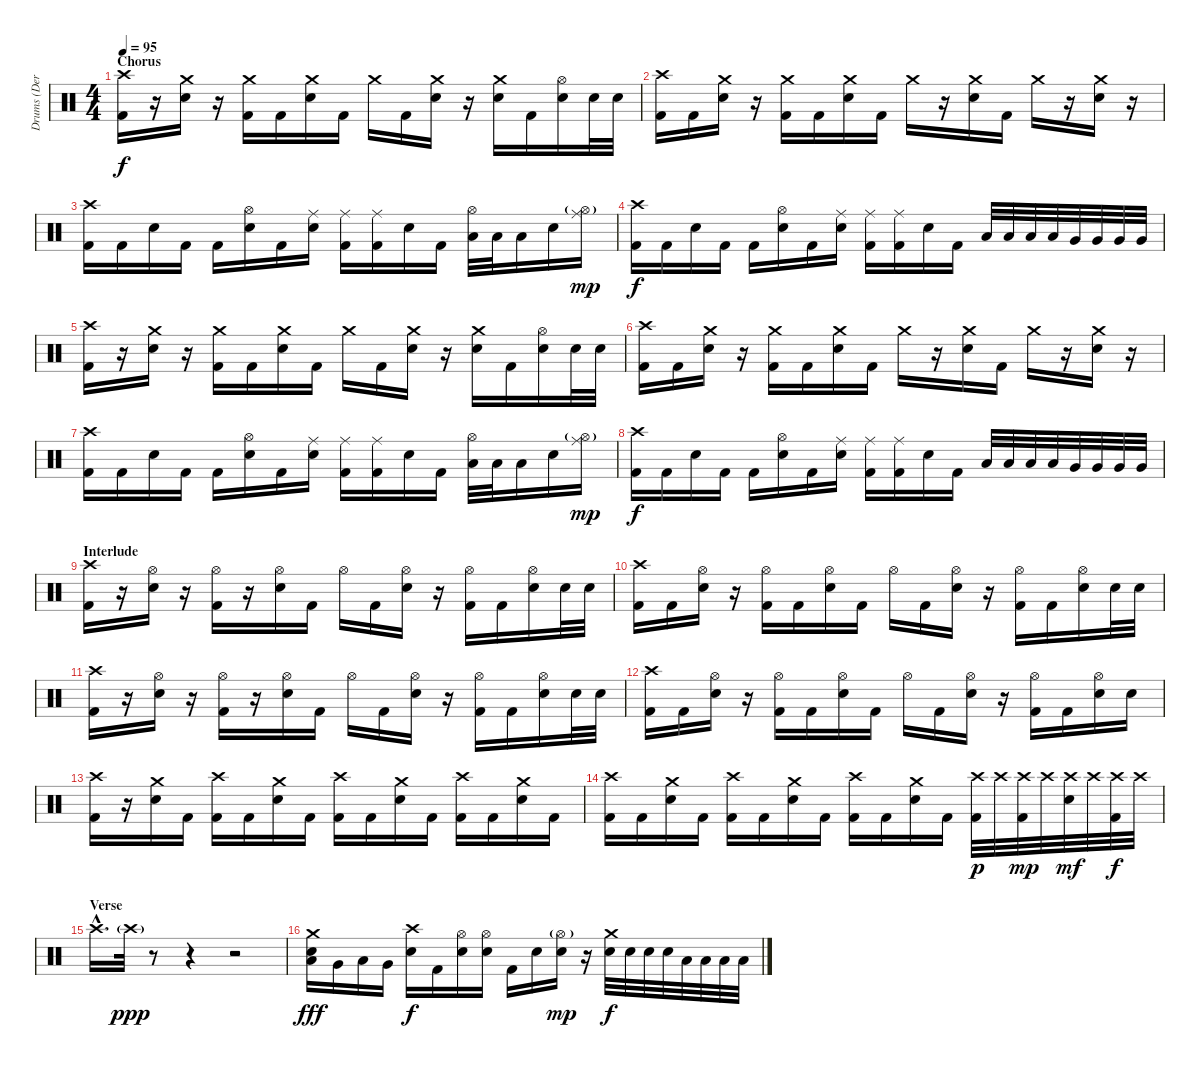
\track ("Drums (Derek Bloom)" "Drums (Der") {instrument percussion}
\staff {score}
\articulation defaults
\ts (4 4)
\section ("" "Chorus")
\tempo 95
\clef neutral
\ks c
("Crash high (hit)" "Kick (hit) 2").16{dy f} r.16 ("Crash medium (hit)" "Electric Snare (hit)").16 r.16 ("Crash medium (hit)" "Kick (hit) 2").16 "Kick (hit) 2".16 ("Crash medium (hit)" "Electric Snare (hit)").16 "Kick (hit) 2".16 "Crash medium (hit)".16 "Kick (hit) 2".16 ("Crash medium (hit)" "Electric Snare (hit)").16 r.16 ("Crash medium (hit)" "Electric Snare (hit)").16 "Kick (hit) 2".16 ("Hi-Hat (open)" "Electric Snare (hit)").16 "Electric Snare (hit)".32 "Electric Snare (hit)".32 |
("Crash high (hit)" "Kick (hit) 2").16 "Kick (hit) 2".16 ("Crash medium (hit)" "Electric Snare (hit)").16 r.16 ("Crash medium (hit)" "Kick (hit) 2").16 "Kick (hit) 2".16 ("Crash medium (hit)" "Electric Snare (hit)").16 "Kick (hit) 2".16 "Crash medium (hit)".16 r.16 ("Crash medium (hit)" "Electric Snare (hit)").16 "Kick (hit) 2".16 "Crash medium (hit)".16 r.16 ("Crash medium (hit)" "Electric Snare (hit)").16 r.16 |
("Crash high (hit)" "Kick (hit) 2").16 "Kick (hit) 2".16 "Electric Snare (hit)".16 "Kick (hit) 2".16 "Kick (hit) 2".16 ("Hi-Hat (open)" "Electric Snare (hit)").16 "Kick (hit) 2".16 ("Ride (middle)" "Electric Snare (hit)").16 ("Ride (middle)" "Kick (hit) 2").16 ("Ride (middle)" "Kick (hit) 2").16 "Electric Snare (hit)".16 "Kick (hit) 2".16 ("Hi-Hat (open)" "Low Tom (hit)").32 "Low Tom (hit)".32 "Low Tom (hit)".16 "Electric Snare (hit)".16 ("Ride (middle)" "Hi-Hat (open)"{g}).16{dy mp} |
("Crash high (hit)" "Kick (hit) 2").16{dy f} "Kick (hit) 2".16 "Electric Snare (hit)".16 "Kick (hit) 2".16 "Kick (hit) 2".16 ("Hi-Hat (open)" "Electric Snare (hit)").16 "Kick (hit) 2".16 ("Ride (middle)" "Electric Snare (hit)").16 ("Ride (middle)" "Kick (hit) 2").16 ("Ride (middle)" "Kick (hit) 2").16 "Electric Snare (hit)".16 "Kick (hit) 2".16 "Low Tom (hit)".32 "Low Tom (hit)".32 "Low Tom (hit)".32 "Low Tom (hit)".32 "Very Low Tom (hit)".32 "Very Low Tom (hit)".32 "Very Low Tom (hit)".32 "Very Low Tom (hit)".32 |
("Crash high (hit)" "Kick (hit) 2").16 r.16 ("Crash medium (hit)" "Electric Snare (hit)").16 r.16 ("Crash medium (hit)" "Kick (hit) 2").16 "Kick (hit) 2".16 ("Crash medium (hit)" "Electric Snare (hit)").16 "Kick (hit) 2".16 "Crash medium (hit)".16 "Kick (hit) 2".16 ("Crash medium (hit)" "Electric Snare (hit)").16 r.16 ("Crash medium (hit)" "Electric Snare (hit)").16 "Kick (hit) 2".16 ("Hi-Hat (open)" "Electric Snare (hit)").16 "Electric Snare (hit)".32 "Electric Snare (hit)".32 |
("Crash high (hit)" "Kick (hit) 2").16 "Kick (hit) 2".16 ("Crash medium (hit)" "Electric Snare (hit)").16 r.16 ("Crash medium (hit)" "Kick (hit) 2").16 "Kick (hit) 2".16 ("Crash medium (hit)" "Electric Snare (hit)").16 "Kick (hit) 2".16 "Crash medium (hit)".16 r.16 ("Crash medium (hit)" "Electric Snare (hit)").16 "Kick (hit) 2".16 "Crash medium (hit)".16 r.16 ("Crash medium (hit)" "Electric Snare (hit)").16 r.16 |
("Crash high (hit)" "Kick (hit) 2").16 "Kick (hit) 2".16 "Electric Snare (hit)".16 "Kick (hit) 2".16 "Kick (hit) 2".16 ("Hi-Hat (open)" "Electric Snare (hit)").16 "Kick (hit) 2".16 ("Ride (middle)" "Electric Snare (hit)").16 ("Ride (middle)" "Kick (hit) 2").16 ("Ride (middle)" "Kick (hit) 2").16 "Electric Snare (hit)".16 "Kick (hit) 2".16 ("Hi-Hat (open)" "Low Tom (hit)").32 "Low Tom (hit)".32 "Low Tom (hit)".16 "Electric Snare (hit)".16 ("Ride (middle)" "Hi-Hat (open)"{g}).16{dy mp} |
("Crash high (hit)" "Kick (hit) 2").16{dy f} "Kick (hit) 2".16 "Electric Snare (hit)".16 "Kick (hit) 2".16 "Kick (hit) 2".16 ("Hi-Hat (open)" "Electric Snare (hit)").16 "Kick (hit) 2".16 ("Ride (middle)" "Electric Snare (hit)").16 ("Ride (middle)" "Kick (hit) 2").16 ("Ride (middle)" "Kick (hit) 2").16 "Electric Snare (hit)".16 "Kick (hit) 2".16 "Low Tom (hit)".32 "Low Tom (hit)".32 "Low Tom (hit)".32 "Low Tom (hit)".32 "Very Low Tom (hit)".32 "Very Low Tom (hit)".32 "Very Low Tom (hit)".32 "Very Low Tom (hit)".32 |
\section ("" "Interlude")
("Crash high (hit)" "Kick (hit) 2").16 r.16 ("Hi-Hat (open)" "Electric Snare (hit)").16 r.16 ("Hi-Hat (open)" "Kick (hit) 2").16 r.16 ("Hi-Hat (open)" "Electric Snare (hit)").16 "Kick (hit) 2".16 "Hi-Hat (open)".16 "Kick (hit) 2".16 ("Hi-Hat (open)" "Electric Snare (hit)").16 r.16 ("Hi-Hat (open)" "Kick (hit) 2").16 "Kick (hit) 2".16 ("Hi-Hat (open)" "Electric Snare (hit)").16 "Electric Snare (hit)".32 "Electric Snare (hit)".32 |
("Crash high (hit)" "Kick (hit) 2").16 "Kick (hit) 2".16 ("Hi-Hat (open)" "Electric Snare (hit)").16 r.16 ("Hi-Hat (open)" "Kick (hit) 2").16 "Kick (hit) 2".16 ("Hi-Hat (open)" "Electric Snare (hit)").16 "Kick (hit) 2".16 "Hi-Hat (open)".16 "Kick (hit) 2".16 ("Hi-Hat (open)" "Electric Snare (hit)").16 r.16 ("Hi-Hat (open)" "Kick (hit) 2").16 "Kick (hit) 2".16 ("Hi-Hat (open)" "Electric Snare (hit)").16 "Electric Snare (hit)".32 "Electric Snare (hit)".32 |
("Crash high (hit)" "Kick (hit) 2").16 r.16 ("Hi-Hat (open)" "Electric Snare (hit)").16 r.16 ("Hi-Hat (open)" "Kick (hit) 2").16 r.16 ("Hi-Hat (open)" "Electric Snare (hit)").16 "Kick (hit) 2".16 "Hi-Hat (open)".16 "Kick (hit) 2".16 ("Hi-Hat (open)" "Electric Snare (hit)").16 r.16 ("Hi-Hat (open)" "Kick (hit) 2").16 "Kick (hit) 2".16 ("Hi-Hat (open)" "Electric Snare (hit)").16 "Electric Snare (hit)".32 "Electric Snare (hit)".32 |
("Crash high (hit)" "Kick (hit) 2").16 "Kick (hit) 2".16 ("Hi-Hat (open)" "Electric Snare (hit)").16 r.16 ("Hi-Hat (open)" "Kick (hit) 2").16 "Kick (hit) 2".16 ("Hi-Hat (open)" "Electric Snare (hit)").16 "Kick (hit) 2".16 "Hi-Hat (open)".16 "Kick (hit) 2".16 ("Hi-Hat (open)" "Electric Snare (hit)").16 r.16 ("Hi-Hat (open)" "Kick (hit) 2").16 "Kick (hit) 2".16 ("Hi-Hat (open)" "Electric Snare (hit)").16 "Electric Snare (hit)".16 |
("Crash high (hit)" "Kick (hit) 2").16 r.16 ("Crash medium (hit)" "Electric Snare (hit)").16 "Kick (hit) 2".16 ("Crash high (hit)" "Kick (hit) 2").16 "Kick (hit) 2".16 ("Crash medium (hit)" "Electric Snare (hit)").16 "Kick (hit) 2".16 ("Crash high (hit)" "Kick (hit) 2").16 "Kick (hit) 2".16 ("Crash medium (hit)" "Electric Snare (hit)").16 "Kick (hit) 2".16 ("Crash high (hit)" "Kick (hit) 2").16 "Kick (hit) 2".16 ("Crash medium (hit)" "Electric Snare (hit)").16 "Kick (hit) 2".16 |
("Crash high (hit)" "Kick (hit) 2").16 "Kick (hit) 2".16 ("Crash medium (hit)" "Electric Snare (hit)").16 "Kick (hit) 2".16 ("Crash high (hit)" "Kick (hit) 2").16 "Kick (hit) 2".16 ("Crash medium (hit)" "Electric Snare (hit)").16 "Kick (hit) 2".16 ("Crash high (hit)" "Kick (hit) 2").16 "Kick (hit) 2".16 ("Crash medium (hit)" "Electric Snare (hit)").16 "Kick (hit) 2".16 ("Crash high (hit)" "Kick (hit) 2").32{dy p} "Crash high (hit)".32 ("Crash high (hit)" "Kick (hit) 2").32{dy mp} "Crash high (hit)".32 ("Crash high (hit)" "Electric Snare (hit)").32{dy mf} "Crash high (hit)".32 ("Crash high (hit)" "Kick (hit) 2").32{dy f} "Crash high (hit)".32 |
\section ("" "Verse")
"Crash high (hit)"{hac}.16{d} "Crash high (hit)"{g}.32{dy ppp} r.8 r.4 r.2 |
("Crash medium (hit)" "Electric Snare (hit)" "Low Tom (hit)").16{dy fff} "Very Low Tom (hit)".16 "Low Tom (hit)".16 "Very Low Tom (hit)".16 ("Crash high (hit)" "Electric Snare (hit)").16{dy f} "Kick (hit) 2".16 ("Hi-Hat (open)" "Electric Snare (hit)").16 ("Hi-Hat (open)" "Electric Snare (hit)").16 "Kick (hit) 2".16 "Electric Snare (hit)".16 ("Hi-Hat (open)"{g} "Electric Snare (hit)").16{dy mp} r.16 ("Crash medium (hit)" "Electric Snare (hit)").32{dy f} "Electric Snare (hit)".32 "Electric Snare (hit)".32 "Electric Snare (hit)".32 "Low Tom (hit)".32 "Low Tom (hit)".32 "Low Tom (hit)".32 "Low Tom (hit)".32
